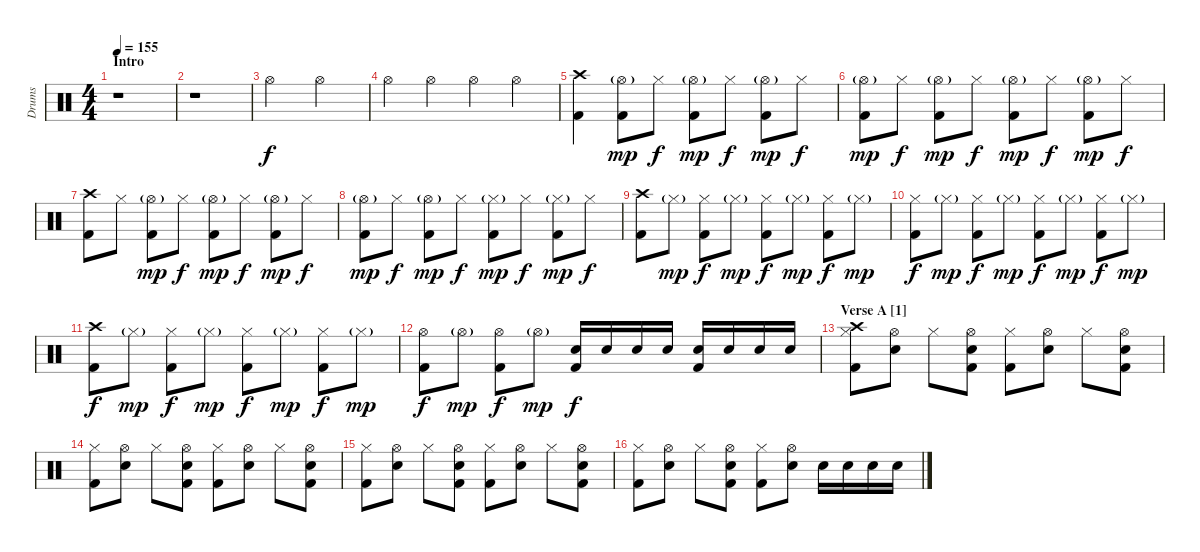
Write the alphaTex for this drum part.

\track ("Drums" "Drums") {instrument percussion}
\staff {score}
\articulation defaults
\ts (4 4)
\section ("" "Intro")
\tempo 155
\clef neutral
\ks c
r.1{dy f} |
r.1 |
"Hi-Hat (open)".2 "Hi-Hat (open)".2 |
"Hi-Hat (open)".4 "Hi-Hat (open)".4 "Hi-Hat (open)".4 "Hi-Hat (open)".4 |
("Crash high (hit)" "Kick (hit) 2").4 ("Hi-Hat (open)"{g} "Kick (hit) 2").8{dy mp} "Hi-Hat (closed)".8{dy f} ("Hi-Hat (open)"{g} "Kick (hit) 2").8{dy mp} "Hi-Hat (closed)".8{dy f} ("Hi-Hat (open)"{g} "Kick (hit) 2").8{dy mp} "Hi-Hat (closed)".8{dy f} |
("Hi-Hat (open)"{g} "Kick (hit) 2").8{dy mp} "Hi-Hat (closed)".8{dy f} ("Hi-Hat (open)"{g} "Kick (hit) 2").8{dy mp} "Hi-Hat (closed)".8{dy f} ("Hi-Hat (open)"{g} "Kick (hit) 2").8{dy mp} "Hi-Hat (closed)".8{dy f} ("Hi-Hat (open)"{g} "Kick (hit) 2").8{dy mp} "Hi-Hat (closed)".8{dy f} |
("Crash high (hit)" "Kick (hit) 2").8 "Hi-Hat (closed)".8 ("Hi-Hat (open)"{g} "Kick (hit) 2").8{dy mp} "Hi-Hat (closed)".8{dy f} ("Hi-Hat (open)"{g} "Kick (hit) 2").8{dy mp} "Hi-Hat (closed)".8{dy f} ("Hi-Hat (open)"{g} "Kick (hit) 2").8{dy mp} "Hi-Hat (closed)".8{dy f} |
("Hi-Hat (open)"{g} "Kick (hit) 2").8{dy mp} "Hi-Hat (closed)".8{dy f} ("Hi-Hat (open)"{g} "Kick (hit) 2").8{dy mp} "Hi-Hat (closed)".8{dy f} ("Hi-Hat (closed)"{g} "Kick (hit) 2").8{dy mp} "Hi-Hat (closed)".8{dy f} ("Hi-Hat (closed)"{g} "Kick (hit) 2").8{dy mp} "Hi-Hat (closed)".8{dy f} |
("Crash high (hit)" "Kick (hit) 2").8 "Hi-Hat (closed)"{g}.8{dy mp} ("Hi-Hat (closed)" "Kick (hit) 2").8{dy f} "Hi-Hat (closed)"{g}.8{dy mp} ("Hi-Hat (closed)" "Kick (hit) 2").8{dy f} "Hi-Hat (closed)"{g}.8{dy mp} ("Hi-Hat (closed)" "Kick (hit) 2").8{dy f} "Hi-Hat (closed)"{g}.8{dy mp} |
("Hi-Hat (closed)" "Kick (hit) 2").8{dy f} "Hi-Hat (closed)"{g}.8{dy mp} ("Hi-Hat (closed)" "Kick (hit) 2").8{dy f} "Hi-Hat (closed)"{g}.8{dy mp} ("Hi-Hat (closed)" "Kick (hit) 2").8{dy f} "Hi-Hat (closed)"{g}.8{dy mp} ("Hi-Hat (closed)" "Kick (hit) 2").8{dy f} "Hi-Hat (closed)"{g}.8{dy mp} |
("Crash high (hit)" "Kick (hit) 2").8{dy f} "Hi-Hat (closed)"{g}.8{dy mp} ("Hi-Hat (closed)" "Kick (hit) 2").8{dy f} "Hi-Hat (closed)"{g}.8{dy mp} ("Hi-Hat (closed)" "Kick (hit) 2").8{dy f} "Hi-Hat (closed)"{g}.8{dy mp} ("Hi-Hat (closed)" "Kick (hit) 2").8{dy f} "Hi-Hat (closed)"{g}.8{dy mp} |
("Hi-Hat (open)" "Kick (hit) 2").8{dy f} "Hi-Hat (open)"{g}.8{dy mp} ("Hi-Hat (open)" "Kick (hit) 2").8{dy f} "Hi-Hat (open)"{g}.8{dy mp} ("Electric Snare (hit)" "Kick (hit) 2").16{dy f} "Electric Snare (hit)".16 "Electric Snare (hit)".16 "Electric Snare (hit)".16 ("Electric Snare (hit)" "Kick (hit) 2").16 "Electric Snare (hit)".16 "Electric Snare (hit)".16 "Electric Snare (hit)".16 |
\section ("" "Verse A [1]")
("Crash high (hit)" "Hi-Hat (closed)" "Kick (hit) 2").8 ("Hi-Hat (open)" "Electric Snare (hit)").8 "Hi-Hat (closed)".8 ("Hi-Hat (open)" "Electric Snare (hit)" "Kick (hit) 2").8 ("Hi-Hat (closed)" "Kick (hit) 2").8 ("Hi-Hat (open)" "Electric Snare (hit)").8 "Hi-Hat (closed)".8 ("Hi-Hat (open)" "Electric Snare (hit)" "Kick (hit) 2").8 |
("Hi-Hat (closed)" "Kick (hit) 2").8 ("Hi-Hat (open)" "Electric Snare (hit)").8 "Hi-Hat (closed)".8 ("Hi-Hat (open)" "Electric Snare (hit)" "Kick (hit) 2").8 ("Hi-Hat (closed)" "Kick (hit) 2").8 ("Hi-Hat (open)" "Electric Snare (hit)").8 "Hi-Hat (closed)".8 ("Hi-Hat (open)" "Electric Snare (hit)" "Kick (hit) 2").8 |
("Hi-Hat (closed)" "Kick (hit) 2").8 ("Hi-Hat (open)" "Electric Snare (hit)").8 "Hi-Hat (closed)".8 ("Hi-Hat (open)" "Electric Snare (hit)" "Kick (hit) 2").8 ("Hi-Hat (closed)" "Kick (hit) 2").8 ("Hi-Hat (open)" "Electric Snare (hit)").8 "Hi-Hat (closed)".8 ("Hi-Hat (open)" "Electric Snare (hit)" "Kick (hit) 2").8 |
("Hi-Hat (closed)" "Kick (hit) 2").8 ("Hi-Hat (open)" "Electric Snare (hit)").8 "Hi-Hat (closed)".8 ("Hi-Hat (open)" "Electric Snare (hit)" "Kick (hit) 2").8 ("Hi-Hat (closed)" "Kick (hit) 2").8 ("Hi-Hat (open)" "Electric Snare (hit)").8 "Electric Snare (hit)".16 "Electric Snare (hit)".16 "Electric Snare (hit)".16 "Electric Snare (hit)".16
